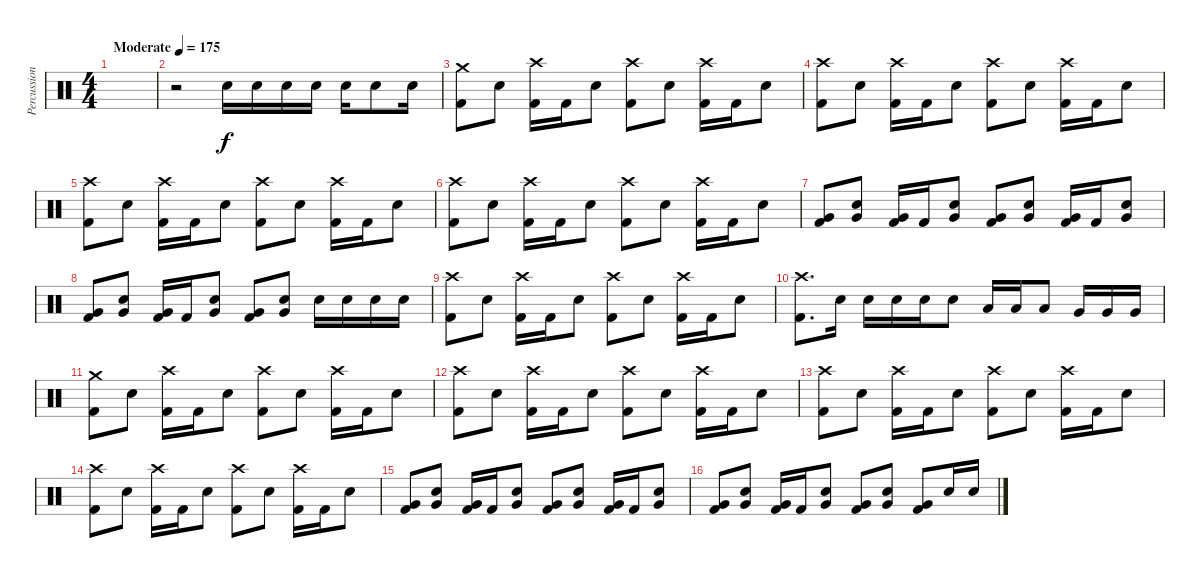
\track ("Percussion" "Percussion") {instrument percussion}
\staff {score}
\articulation defaults
\ts (4 4)
\tempo (175 "Moderate")
\clef neutral
\ks c
|
r.2 "Electric Snare (hit)".16 "Electric Snare (hit)".16 "Electric Snare (hit)".16 "Electric Snare (hit)".16 "Electric Snare (hit)".16 "Electric Snare (hit)".8 "Electric Snare (hit)".16 |
("Crash medium (hit)" "Kick (hit) 2").8 "Electric Snare (hit)".8 ("Crash high (hit)" "Kick (hit) 2").16 "Kick (hit) 2".16 "Electric Snare (hit)".8 ("Crash high (hit)" "Kick (hit) 2").8 "Electric Snare (hit)".8 ("Crash high (hit)" "Kick (hit) 2").16 "Kick (hit) 2".16 "Electric Snare (hit)".8 |
("Crash high (hit)" "Kick (hit) 2").8 "Electric Snare (hit)".8 ("Crash high (hit)" "Kick (hit) 2").16 "Kick (hit) 2".16 "Electric Snare (hit)".8 ("Crash high (hit)" "Kick (hit) 2").8 "Electric Snare (hit)".8 ("Crash high (hit)" "Kick (hit) 2").16 "Kick (hit) 2".16 "Electric Snare (hit)".8 |
("Crash high (hit)" "Kick (hit) 2").8 "Electric Snare (hit)".8 ("Crash high (hit)" "Kick (hit) 2").16 "Kick (hit) 2".16 "Electric Snare (hit)".8 ("Crash high (hit)" "Kick (hit) 2").8 "Electric Snare (hit)".8 ("Crash high (hit)" "Kick (hit) 2").16 "Kick (hit) 2".16 "Electric Snare (hit)".8 |
("Crash high (hit)" "Kick (hit) 2").8 "Electric Snare (hit)".8 ("Crash high (hit)" "Kick (hit) 2").16 "Kick (hit) 2".16 "Electric Snare (hit)".8 ("Crash high (hit)" "Kick (hit) 2").8 "Electric Snare (hit)".8 ("Crash high (hit)" "Kick (hit) 2").16 "Kick (hit) 2".16 "Electric Snare (hit)".8 |
("Very Low Tom (hit)" "Kick (hit) 2").8 ("Electric Snare (hit)" "Very Low Tom (hit)").8 ("Very Low Tom (hit)" "Kick (hit) 2").16 "Kick (hit) 2".16 ("Electric Snare (hit)" "Very Low Tom (hit)").8 ("Very Low Tom (hit)" "Kick (hit) 2").8 ("Electric Snare (hit)" "Very Low Tom (hit)").8 ("Very Low Tom (hit)" "Kick (hit) 2").16 "Kick (hit) 2".16 ("Electric Snare (hit)" "Very Low Tom (hit)").8 |
("Very Low Tom (hit)" "Kick (hit) 2").8 ("Electric Snare (hit)" "Very Low Tom (hit)").8 ("Very Low Tom (hit)" "Kick (hit) 2").16 "Kick (hit) 2".16 ("Electric Snare (hit)" "Very Low Tom (hit)").8 ("Very Low Tom (hit)" "Kick (hit) 2").8 ("Electric Snare (hit)" "Very Low Tom (hit)").8 "Electric Snare (hit)".16 "Electric Snare (hit)".16 "Electric Snare (hit)".16 "Electric Snare (hit)".16 |
("Crash high (hit)" "Kick (hit) 2").8 "Electric Snare (hit)".8 ("Crash high (hit)" "Kick (hit) 2").16 "Kick (hit) 2".16 "Electric Snare (hit)".8 ("Crash high (hit)" "Kick (hit) 2").8 "Electric Snare (hit)".8 ("Crash high (hit)" "Kick (hit) 2").16 "Kick (hit) 2".16 "Electric Snare (hit)".8 |
("Crash high (hit)" "Kick (hit) 2").8{d} "Electric Snare (hit)".16 "Electric Snare (hit)".16 "Electric Snare (hit)".16 "Electric Snare (hit)".16 "Electric Snare (hit)".8 "Low Tom (hit)".16 "Low Tom (hit)".16 "Low Tom (hit)".8 "Very Low Tom (hit)".16 "Very Low Tom (hit)".16 "Very Low Tom (hit)".16 |
("Crash medium (hit)" "Kick (hit) 2").8 "Electric Snare (hit)".8 ("Crash high (hit)" "Kick (hit) 2").16 "Kick (hit) 2".16 "Electric Snare (hit)".8 ("Crash high (hit)" "Kick (hit) 2").8 "Electric Snare (hit)".8 ("Crash high (hit)" "Kick (hit) 2").16 "Kick (hit) 2".16 "Electric Snare (hit)".8 |
("Crash high (hit)" "Kick (hit) 2").8 "Electric Snare (hit)".8 ("Crash high (hit)" "Kick (hit) 2").16 "Kick (hit) 2".16 "Electric Snare (hit)".8 ("Crash high (hit)" "Kick (hit) 2").8 "Electric Snare (hit)".8 ("Crash high (hit)" "Kick (hit) 2").16 "Kick (hit) 2".16 "Electric Snare (hit)".8 |
("Crash high (hit)" "Kick (hit) 2").8 "Electric Snare (hit)".8 ("Crash high (hit)" "Kick (hit) 2").16 "Kick (hit) 2".16 "Electric Snare (hit)".8 ("Crash high (hit)" "Kick (hit) 2").8 "Electric Snare (hit)".8 ("Crash high (hit)" "Kick (hit) 2").16 "Kick (hit) 2".16 "Electric Snare (hit)".8 |
("Crash high (hit)" "Kick (hit) 2").8 "Electric Snare (hit)".8 ("Crash high (hit)" "Kick (hit) 2").16 "Kick (hit) 2".16 "Electric Snare (hit)".8 ("Crash high (hit)" "Kick (hit) 2").8 "Electric Snare (hit)".8 ("Crash high (hit)" "Kick (hit) 2").16 "Kick (hit) 2".16 "Electric Snare (hit)".8 |
("Very Low Tom (hit)" "Kick (hit) 2").8 ("Electric Snare (hit)" "Very Low Tom (hit)").8 ("Very Low Tom (hit)" "Kick (hit) 2").16 "Kick (hit) 2".16 ("Electric Snare (hit)" "Very Low Tom (hit)").8 ("Very Low Tom (hit)" "Kick (hit) 2").8 ("Electric Snare (hit)" "Very Low Tom (hit)").8 ("Very Low Tom (hit)" "Kick (hit) 2").16 "Kick (hit) 2".16 ("Electric Snare (hit)" "Very Low Tom (hit)").8 |
("Very Low Tom (hit)" "Kick (hit) 2").8 ("Electric Snare (hit)" "Very Low Tom (hit)").8 ("Very Low Tom (hit)" "Kick (hit) 2").16 "Kick (hit) 2".16 ("Electric Snare (hit)" "Very Low Tom (hit)").8 ("Very Low Tom (hit)" "Kick (hit) 2").8 ("Electric Snare (hit)" "Very Low Tom (hit)").8 ("Very Low Tom (hit)" "Kick (hit) 2").8 "Electric Snare (hit)".16 "Electric Snare (hit)".16
